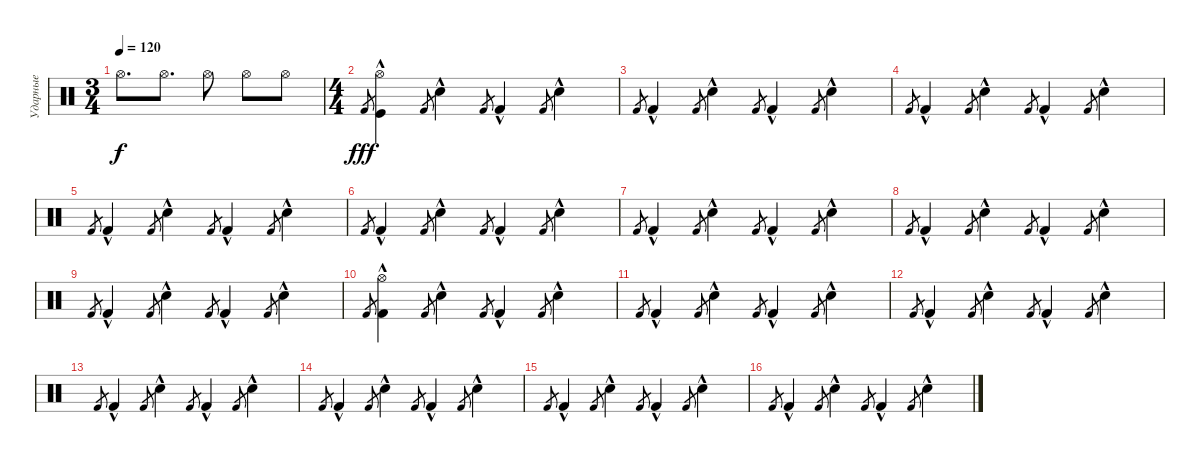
\track ("Ударные" "Ударные") {instrument percussion}
\staff {score}
\articulation defaults
\ts (3 4)
\tempo 120
\clef neutral
\ks c "Hi-Hat (open)".8{d dy f} "Hi-Hat (open)".8{d} "Hi-Hat (open)".8 "Hi-Hat (open)".8 "Hi-Hat (open)".8
|
\ts (4 4)
"Kick (hit) 2".8{gr dy fff} ("Kick (hit)"{hac} "Hi-Hat (open)"{hac}).4 "Kick (hit) 2".8{gr} "Snare (hit) 2"{hac}.4 "Kick (hit) 2".8{gr} "Kick (hit) 2"{hac}.4 "Kick (hit) 2".8{gr} "Snare (hit) 2"{hac}.4 |
"Kick (hit) 2".8{gr} "Kick (hit) 2"{hac}.4 "Kick (hit) 2".8{gr} "Snare (hit) 2"{hac}.4 "Kick (hit) 2".8{gr} "Kick (hit) 2"{hac}.4 "Kick (hit) 2".8{gr} "Snare (hit) 2"{hac}.4 |
"Kick (hit) 2".8{gr} "Kick (hit) 2"{hac}.4 "Kick (hit) 2".8{gr} "Snare (hit) 2"{hac}.4 "Kick (hit) 2".8{gr} "Kick (hit) 2"{hac}.4 "Kick (hit) 2".8{gr} "Snare (hit) 2"{hac}.4 |
"Kick (hit) 2".8{gr} "Kick (hit) 2"{hac}.4 "Kick (hit) 2".8{gr} "Snare (hit) 2"{hac}.4 "Kick (hit) 2".8{gr} "Kick (hit) 2"{hac}.4 "Kick (hit) 2".8{gr} "Snare (hit) 2"{hac}.4 |
"Kick (hit) 2".8{gr} "Kick (hit) 2"{hac}.4 "Kick (hit) 2".8{gr} "Snare (hit) 2"{hac}.4 "Kick (hit) 2".8{gr} "Kick (hit) 2"{hac}.4 "Kick (hit) 2".8{gr} "Snare (hit) 2"{hac}.4 |
"Kick (hit) 2".8{gr} "Kick (hit) 2"{hac}.4 "Kick (hit) 2".8{gr} "Snare (hit) 2"{hac}.4 "Kick (hit) 2".8{gr} "Kick (hit) 2"{hac}.4 "Kick (hit) 2".8{gr} "Snare (hit) 2"{hac}.4 |
"Kick (hit) 2".8{gr} "Kick (hit) 2"{hac}.4 "Kick (hit) 2".8{gr} "Snare (hit) 2"{hac}.4 "Kick (hit) 2".8{gr} "Kick (hit) 2"{hac}.4 "Kick (hit) 2".8{gr} "Snare (hit) 2"{hac}.4 |
"Kick (hit) 2".8{gr} "Kick (hit) 2"{hac}.4 "Kick (hit) 2".8{gr} "Snare (hit) 2"{hac}.4 "Kick (hit) 2".8{gr} "Kick (hit) 2"{hac}.4 "Kick (hit) 2".8{gr} "Snare (hit) 2"{hac}.4 |
"Kick (hit) 2".8{gr} ("Kick (hit) 2"{hac} "Hi-Hat (open)"{hac}).4 "Kick (hit) 2".8{gr} "Snare (hit) 2"{hac}.4 "Kick (hit) 2".8{gr} "Kick (hit) 2"{hac}.4 "Kick (hit) 2".8{gr} "Snare (hit) 2"{hac}.4 |
"Kick (hit) 2".8{gr} "Kick (hit) 2"{hac}.4 "Kick (hit) 2".8{gr} "Snare (hit) 2"{hac}.4 "Kick (hit) 2".8{gr} "Kick (hit) 2"{hac}.4 "Kick (hit) 2".8{gr} "Snare (hit) 2"{hac}.4 |
"Kick (hit) 2".8{gr} "Kick (hit) 2"{hac}.4 "Kick (hit) 2".8{gr} "Snare (hit) 2"{hac}.4 "Kick (hit) 2".8{gr} "Kick (hit) 2"{hac}.4 "Kick (hit) 2".8{gr} "Snare (hit) 2"{hac}.4 |
"Kick (hit) 2".8{gr} "Kick (hit) 2"{hac}.4 "Kick (hit) 2".8{gr} "Snare (hit) 2"{hac}.4 "Kick (hit) 2".8{gr} "Kick (hit) 2"{hac}.4 "Kick (hit) 2".8{gr} "Snare (hit) 2"{hac}.4 |
"Kick (hit) 2".8{gr} "Kick (hit) 2"{hac}.4 "Kick (hit) 2".8{gr} "Snare (hit) 2"{hac}.4 "Kick (hit) 2".8{gr} "Kick (hit) 2"{hac}.4 "Kick (hit) 2".8{gr} "Snare (hit) 2"{hac}.4 |
"Kick (hit) 2".8{gr} "Kick (hit) 2"{hac}.4 "Kick (hit) 2".8{gr} "Snare (hit) 2"{hac}.4 "Kick (hit) 2".8{gr} "Kick (hit) 2"{hac}.4 "Kick (hit) 2".8{gr} "Snare (hit) 2"{hac}.4 |
"Kick (hit) 2".8{gr} "Kick (hit) 2"{hac}.4 "Kick (hit) 2".8{gr} "Snare (hit) 2"{hac}.4 "Kick (hit) 2".8{gr} "Kick (hit) 2"{hac}.4 "Kick (hit) 2".8{gr} "Snare (hit) 2"{hac}.4
